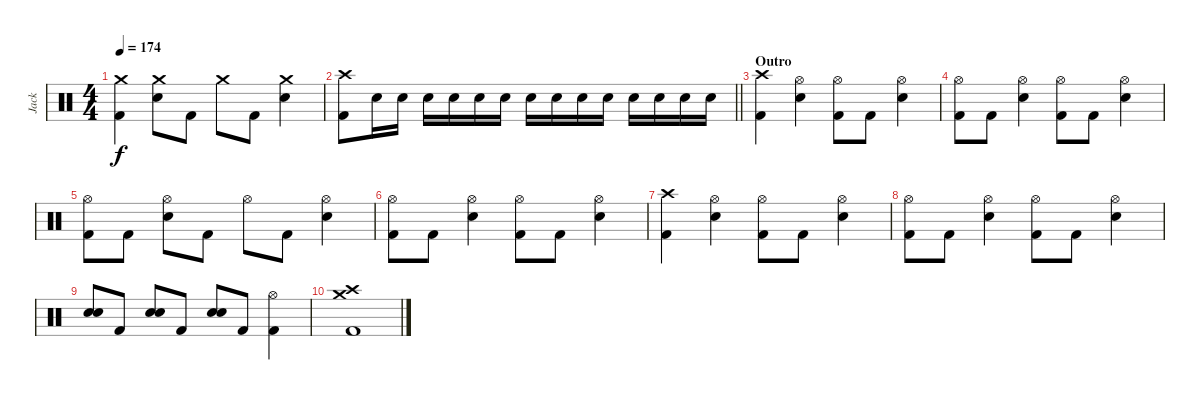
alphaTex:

\track ("Jack" "Jack") {instrument percussion}
\staff {score}
\articulation defaults
\ts (4 4)
\tempo 174
\clef neutral
\ks c
("Crash medium (hit)" "Kick (hit) 2").4{dy f} ("Crash medium (hit)" "Electric Snare (hit)").8 "Kick (hit) 2".8 "Crash medium (hit)".8 "Kick (hit) 2".8 ("Crash medium (hit)" "Electric Snare (hit)").4 |
\barLineRight lightlight
("Crash high (hit)" "Kick (hit) 2").8 "Electric Snare (hit)".16 "Electric Snare (hit)".16 "Electric Snare (hit)".16 "Electric Snare (hit)".16 "Electric Snare (hit)".16 "Electric Snare (hit)".16 "Electric Snare (hit)".16 "Electric Snare (hit)".16 "Electric Snare (hit)".16 "Electric Snare (hit)".16 "Electric Snare (hit)".16 "Electric Snare (hit)".16 "Electric Snare (hit)".16 "Electric Snare (hit)".16 |
\section ("" "Outro")
("Crash high (hit)" "Kick (hit) 2").4 ("Hi-Hat (open)" "Electric Snare (hit)").4 ("Hi-Hat (open)" "Kick (hit) 2").8 "Kick (hit) 2".8 ("Hi-Hat (open)" "Electric Snare (hit)").4 |
("Hi-Hat (open)" "Kick (hit) 2").8 "Kick (hit) 2".8 ("Hi-Hat (open)" "Electric Snare (hit)").4 ("Hi-Hat (open)" "Kick (hit) 2").8 "Kick (hit) 2".8 ("Hi-Hat (open)" "Electric Snare (hit)").4 |
("Hi-Hat (open)" "Kick (hit) 2").8 "Kick (hit) 2".8 ("Hi-Hat (open)" "Electric Snare (hit)").8 "Kick (hit) 2".8 "Hi-Hat (open)".8 "Kick (hit) 2".8 ("Hi-Hat (open)" "Electric Snare (hit)").4 |
("Hi-Hat (open)" "Kick (hit) 2").8 "Kick (hit) 2".8 ("Hi-Hat (open)" "Electric Snare (hit)").4 ("Hi-Hat (open)" "Kick (hit) 2").8 "Kick (hit) 2".8 ("Hi-Hat (open)" "Electric Snare (hit)").4 |
("Crash high (hit)" "Kick (hit) 2").4 ("Hi-Hat (open)" "Electric Snare (hit)").4 ("Hi-Hat (open)" "Kick (hit) 2").8 "Kick (hit) 2".8 ("Hi-Hat (open)" "Electric Snare (hit)").4 |
("Hi-Hat (open)" "Kick (hit) 2").8 "Kick (hit) 2".8 ("Hi-Hat (open)" "Electric Snare (hit)").4 ("Hi-Hat (open)" "Kick (hit) 2").8 "Kick (hit) 2".8 ("Hi-Hat (open)" "Electric Snare (hit)").4 |
("Electric Snare (hit)" "Electric Snare (hit)").8 "Kick (hit) 2".8 ("Electric Snare (hit)" "Electric Snare (hit)").8 "Kick (hit) 2".8 ("Electric Snare (hit)" "Electric Snare (hit)").8 "Kick (hit) 2".8 ("Hi-Hat (open)" "Kick (hit) 2").4 |
("Crash high (hit)" "Crash medium (hit)" "Kick (hit) 2").1
